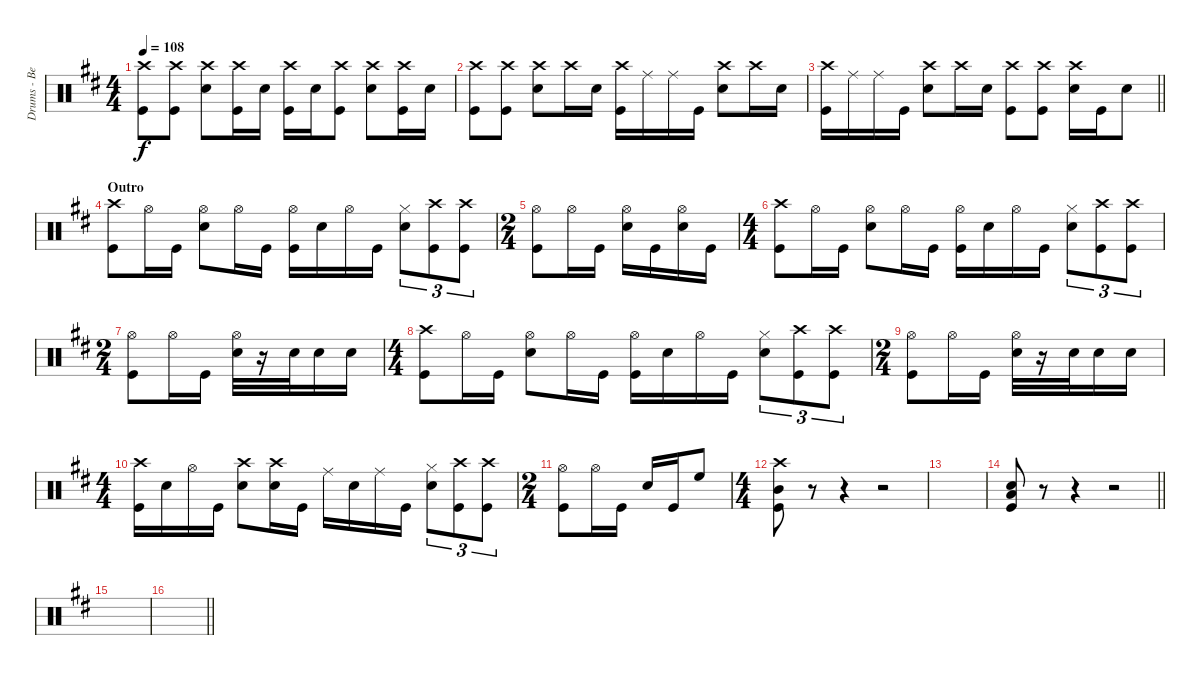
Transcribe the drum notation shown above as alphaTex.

\track ("Drums - Ben Johnston" "Drums - Be") {instrument percussion}
\staff {score}
\articulation defaults
\ts (4 4)
\tempo 108
\clef neutral
\ks d
("Crash high (hit)" "Kick (hit)").8{dy f} ("Crash high (hit)" "Kick (hit)").8 ("Crash high (hit)" "Snare (hit) 2").8 ("Crash high (hit)" "Kick (hit)").16 "Snare (hit) 2".16 ("Crash high (hit)" "Kick (hit)").16 "Snare (hit) 2".16 ("Crash high (hit)" "Kick (hit)").8 ("Crash high (hit)" "Snare (hit) 2").8 ("Crash high (hit)" "Kick (hit)").16 "Snare (hit) 2".16 |
("Crash high (hit)" "Kick (hit)").8 ("Crash high (hit)" "Kick (hit)").8 ("Crash high (hit)" "Snare (hit) 2").8 "Crash high (hit)".16 "Snare (hit) 2".16 ("Crash high (hit)" "Kick (hit)").16 "Ride (middle)".16 "Ride (middle)".16 "Kick (hit)".16 ("Crash high (hit)" "Snare (hit) 2").8 "Crash high (hit)".16 "Snare (hit) 2".16 |
\barLineRight lightlight
("Crash high (hit)" "Kick (hit)").16 "Ride (middle)".16 "Ride (middle)".16 "Kick (hit)".16 ("Crash high (hit)" "Snare (hit) 2").8 "Crash high (hit)".16 "Snare (hit) 2".16 ("Crash high (hit)" "Kick (hit)").8 ("Crash high (hit)" "Kick (hit)").8 ("Crash high (hit)" "Snare (hit) 2").16 "Kick (hit)".16 "Snare (hit) 2".8 |
\section ("" "Outro")
("Crash high (hit)" "Kick (hit)").8 "Hi-Hat (open)".16 "Kick (hit)".16 ("Hi-Hat (open)" "Snare (hit) 2").8 "Hi-Hat (open)".16 "Kick (hit)".16 ("Hi-Hat (open)" "Kick (hit)").16 "Snare (hit) 2".16 "Hi-Hat (open)".16 "Kick (hit)".16 ("Hi-Hat (closed)" "Snare (hit) 2").8{tu (3 2)} ("Crash high (hit)" "Kick (hit)").8{tu (3 2)} ("Crash high (hit)" "Kick (hit)").8{tu (3 2)} |
\ts (2 4)
("Hi-Hat (open)" "Kick (hit)").8 "Hi-Hat (open)".16 "Kick (hit)".16 ("Hi-Hat (open)" "Snare (hit) 2").16 "Kick (hit)".16 ("Hi-Hat (open)" "Snare (hit) 2").16 "Kick (hit)".16 |
\ts (4 4)
("Crash high (hit)" "Kick (hit)").8 "Hi-Hat (open)".16 "Kick (hit)".16 ("Hi-Hat (open)" "Snare (hit) 2").8 "Hi-Hat (open)".16 "Kick (hit)".16 ("Hi-Hat (open)" "Kick (hit)").16 "Snare (hit) 2".16 "Hi-Hat (open)".16 "Kick (hit)".16 ("Hi-Hat (closed)" "Snare (hit) 2").8{tu (3 2)} ("Crash high (hit)" "Kick (hit)").8{tu (3 2)} ("Crash high (hit)" "Kick (hit)").8{tu (3 2)} |
\ts (2 4)
("Hi-Hat (open)" "Kick (hit)").8 "Hi-Hat (open)".16 "Kick (hit)".16 ("Hi-Hat (open)" "Snare (hit) 2").32 r.16 "Snare (hit) 2".32 "Snare (hit) 2".16 "Snare (hit) 2".16 |
\ts (4 4)
("Crash high (hit)" "Kick (hit)").8 "Hi-Hat (open)".16 "Kick (hit)".16 ("Hi-Hat (open)" "Snare (hit) 2").8 "Hi-Hat (open)".16 "Kick (hit)".16 ("Hi-Hat (open)" "Kick (hit)").16 "Snare (hit) 2".16 "Hi-Hat (open)".16 "Kick (hit)".16 ("Hi-Hat (closed)" "Snare (hit) 2").8{tu (3 2)} ("Crash high (hit)" "Kick (hit)").8{tu (3 2)} ("Crash high (hit)" "Kick (hit)").8{tu (3 2)} |
\ts (2 4)
("Hi-Hat (open)" "Kick (hit)").8 "Hi-Hat (open)".16 "Kick (hit)".16 ("Hi-Hat (open)" "Snare (hit) 2").32 r.16 "Snare (hit) 2".32 "Snare (hit) 2".16 "Snare (hit) 2".16 |
\ts (4 4)
("Crash high (hit)" "Kick (hit)").16 "Snare (hit) 2".16 "Hi-Hat (open)".16 "Kick (hit)".16 ("Crash high (hit)" "Snare (hit) 2").8 ("Crash high (hit)" "Snare (hit) 2").16 "Kick (hit)".16 "Ride (middle)".16 "Snare (hit) 2".16 "Ride (middle)".16 "Kick (hit)".16 ("Hi-Hat (closed)" "Snare (hit) 2").8{tu (3 2)} ("Crash high (hit)" "Kick (hit)").8{tu (3 2)} ("Crash high (hit)" "Kick (hit)").8{tu (3 2)} |
\ts (2 4)
("Hi-Hat (open)" "Kick (hit)").8 "Hi-Hat (open)".16 "Kick (hit)".16 "Snare (hit) 2".16 "Kick (hit)".16 "High Floor Tom (hit)".8 |
\ts (4 4)
("Crash high (hit)" "Mid Tom (hit)" "Kick (hit)").8 r.8 r.4 r.2 |
|
\barLineRight lightlight
("Low Floor Tom (hit)" "Snare (hit) 2" "Kick (hit)").8 r.8 r.4 r.2 |
|
\barLineRight lightlight
